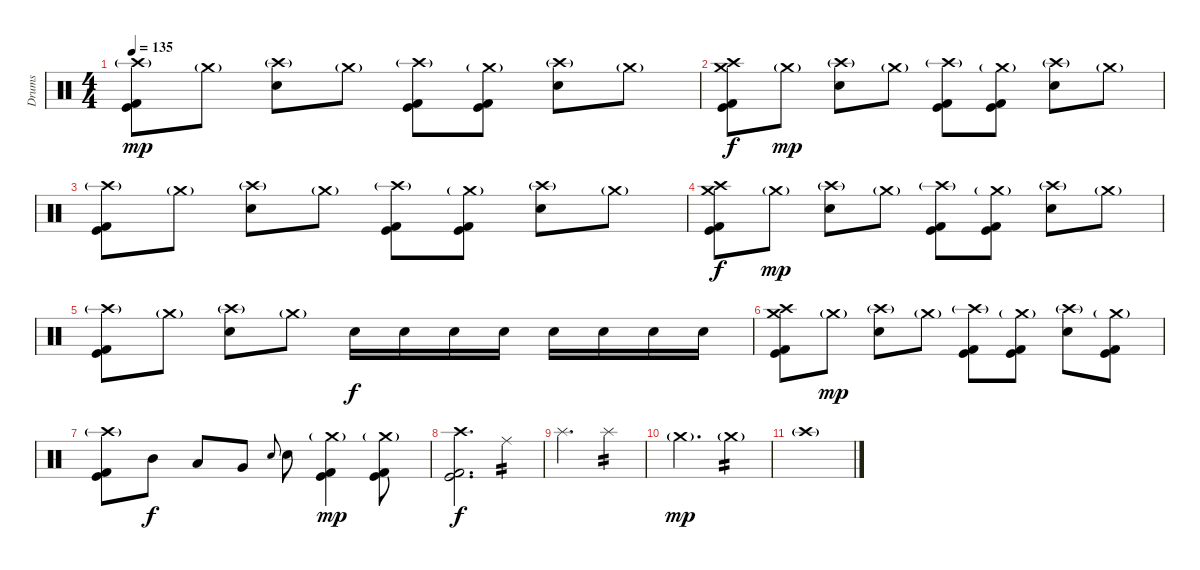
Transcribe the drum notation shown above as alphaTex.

\track ("Drums" "Drums") {instrument percussion}
\staff {score}
\articulation defaults
\ts (4 4)
\tempo 135
\clef neutral
\ks c
("Crash high (hit)"{g} "Kick (hit)" "Kick (hit) 2").8{dy mp} "Crash medium (hit)"{g}.8 ("Crash high (hit)"{g} "Electric Snare (hit)").8 "Crash medium (hit)"{g}.8 ("Crash high (hit)"{g} "Kick (hit)" "Kick (hit) 2").8 ("Crash medium (hit)"{g} "Kick (hit)" "Kick (hit) 2").8 ("Crash high (hit)"{g} "Electric Snare (hit)").8 "Crash medium (hit)"{g}.8 |
("Crash high (hit)" "Crash medium (hit)" "Kick (hit)" "Kick (hit) 2").8{dy f} "Crash medium (hit)"{g}.8{dy mp} ("Crash high (hit)"{g} "Electric Snare (hit)").8 "Crash medium (hit)"{g}.8 ("Crash high (hit)"{g} "Kick (hit)" "Kick (hit) 2").8 ("Crash medium (hit)"{g} "Kick (hit)" "Kick (hit) 2").8 ("Crash high (hit)"{g} "Electric Snare (hit)").8 "Crash medium (hit)"{g}.8 |
("Crash high (hit)"{g} "Kick (hit)" "Kick (hit) 2").8 "Crash medium (hit)"{g}.8 ("Crash high (hit)"{g} "Electric Snare (hit)").8 "Crash medium (hit)"{g}.8 ("Crash high (hit)"{g} "Kick (hit)" "Kick (hit) 2").8 ("Crash medium (hit)"{g} "Kick (hit)" "Kick (hit) 2").8 ("Crash high (hit)"{g} "Electric Snare (hit)").8 "Crash medium (hit)"{g}.8 |
("Crash high (hit)" "Crash medium (hit)" "Kick (hit)" "Kick (hit) 2").8{dy f} "Crash medium (hit)"{g}.8{dy mp} ("Crash high (hit)"{g} "Electric Snare (hit)").8 "Crash medium (hit)"{g}.8 ("Crash high (hit)"{g} "Kick (hit)" "Kick (hit) 2").8 ("Crash medium (hit)"{g} "Kick (hit)" "Kick (hit) 2").8 ("Crash high (hit)"{g} "Electric Snare (hit)").8 "Crash medium (hit)"{g}.8 |
("Crash high (hit)"{g} "Kick (hit)" "Kick (hit) 2").8 "Crash medium (hit)"{g}.8 ("Crash high (hit)"{g} "Electric Snare (hit)").8 "Crash medium (hit)"{g}.8 "Electric Snare (hit)".16{dy f} "Electric Snare (hit)".16 "Electric Snare (hit)".16 "Electric Snare (hit)".16 "Electric Snare (hit)".16 "Electric Snare (hit)".16 "Electric Snare (hit)".16 "Electric Snare (hit)".16 |
("Crash high (hit)" "Crash medium (hit)" "Kick (hit)" "Kick (hit) 2").8 "Crash medium (hit)"{g}.8{dy mp} ("Crash high (hit)"{g} "Electric Snare (hit)").8 "Crash medium (hit)"{g}.8 ("Crash high (hit)"{g} "Kick (hit)" "Kick (hit) 2").8 ("Crash medium (hit)"{g} "Kick (hit)" "Kick (hit) 2").8 ("Crash high (hit)"{g} "Electric Snare (hit)").8 ("Crash medium (hit)"{g} "Kick (hit)" "Kick (hit) 2").8 |
("Crash high (hit)"{g} "Kick (hit)" "Kick (hit) 2").8 "Mid Tom (hit)".8{dy f} "Low Tom (hit)".8 "Very Low Tom (hit)".8 "Electric Snare (hit)".8{gr onbeat} "Electric Snare (hit)".8 ("Crash medium (hit)"{g} "Kick (hit)" "Kick (hit) 2").4{dy mp} ("Crash medium (hit)"{g} "Kick (hit)" "Kick (hit) 2").8 |
("Crash high (hit)" "Kick (hit)" "Kick (hit) 2").2{d dy f volume 0} "Ride (middle)".4{tp 2} |
"Splash (hit)".2{d} "Splash (hit)".4{tp 2} |
"Crash medium (hit)"{g}.2{d dy mp} "Crash medium (hit)"{g}.4{tp 2} |
"Crash high (hit)"{g}.1
